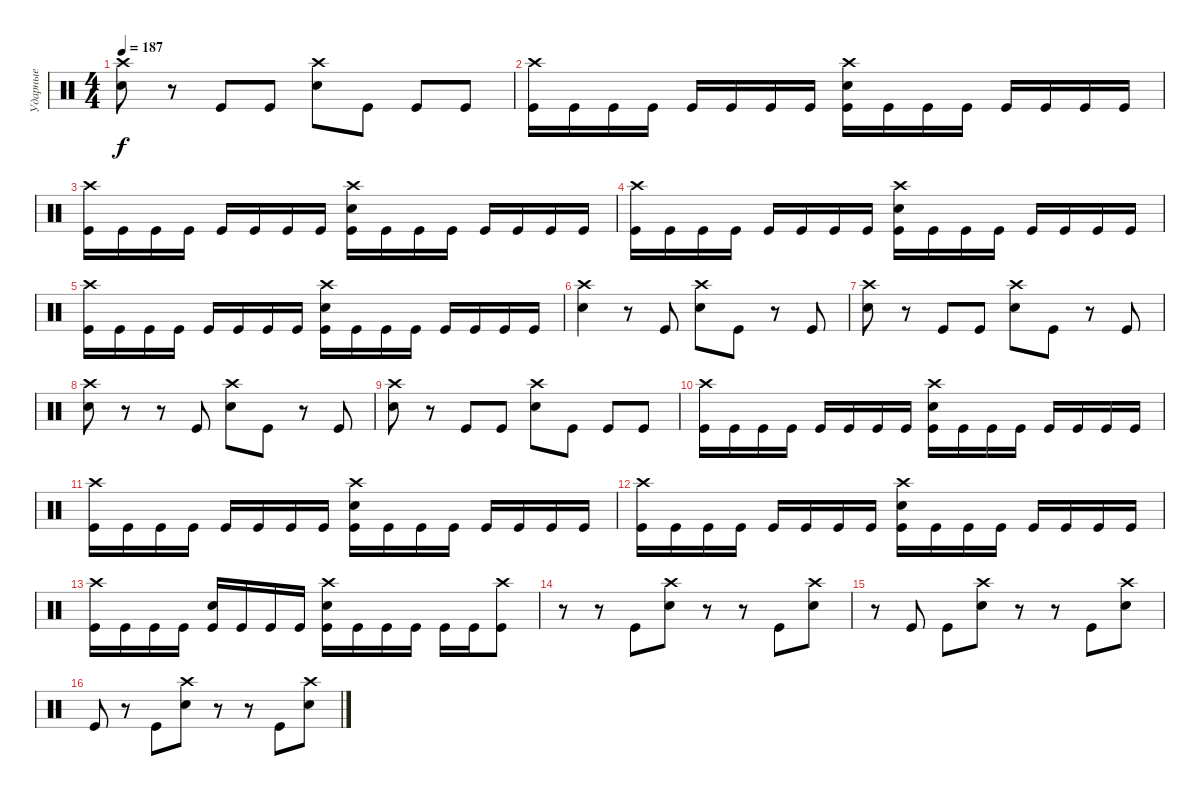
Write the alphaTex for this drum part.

\track ("Ударные" "Ударные") {instrument percussion}
\staff {score}
\articulation defaults
\ts (4 4)
\tempo 187
\clef neutral
\ks c
("Crash high (hit)" "Electric Snare (hit)").8{dy f} r.8 "Kick (hit)".8 "Kick (hit)".8 ("Crash high (hit)" "Electric Snare (hit)").8 "Kick (hit)".8 "Kick (hit)".8 "Kick (hit)".8 |
("Crash high (hit)" "Kick (hit)").16 "Kick (hit)".16 "Kick (hit)".16 "Kick (hit)".16 "Kick (hit)".16 "Kick (hit)".16 "Kick (hit)".16 "Kick (hit)".16 ("Crash high (hit)" "Electric Snare (hit)" "Kick (hit)").16 "Kick (hit)".16 "Kick (hit)".16 "Kick (hit)".16 "Kick (hit)".16 "Kick (hit)".16 "Kick (hit)".16 "Kick (hit)".16 |
("Crash high (hit)" "Kick (hit)").16 "Kick (hit)".16 "Kick (hit)".16 "Kick (hit)".16 "Kick (hit)".16 "Kick (hit)".16 "Kick (hit)".16 "Kick (hit)".16 ("Crash high (hit)" "Electric Snare (hit)" "Kick (hit)").16 "Kick (hit)".16 "Kick (hit)".16 "Kick (hit)".16 "Kick (hit)".16 "Kick (hit)".16 "Kick (hit)".16 "Kick (hit)".16 |
("Crash high (hit)" "Kick (hit)").16 "Kick (hit)".16 "Kick (hit)".16 "Kick (hit)".16 "Kick (hit)".16 "Kick (hit)".16 "Kick (hit)".16 "Kick (hit)".16 ("Crash high (hit)" "Electric Snare (hit)" "Kick (hit)").16 "Kick (hit)".16 "Kick (hit)".16 "Kick (hit)".16 "Kick (hit)".16 "Kick (hit)".16 "Kick (hit)".16 "Kick (hit)".16 |
("Crash high (hit)" "Kick (hit)").16 "Kick (hit)".16 "Kick (hit)".16 "Kick (hit)".16 "Kick (hit)".16 "Kick (hit)".16 "Kick (hit)".16 "Kick (hit)".16 ("Crash high (hit)" "Electric Snare (hit)" "Kick (hit)").16 "Kick (hit)".16 "Kick (hit)".16 "Kick (hit)".16 "Kick (hit)".16 "Kick (hit)".16 "Kick (hit)".16 "Kick (hit)".16 |
("Electric Snare (hit)" "Crash high (hit)").4 r.8 "Kick (hit)".8 ("Crash high (hit)" "Electric Snare (hit)").8 "Kick (hit)".8 r.8 "Kick (hit)".8 |
("Crash high (hit)" "Electric Snare (hit)").8 r.8 "Kick (hit)".8 "Kick (hit)".8 ("Crash high (hit)" "Electric Snare (hit)").8 "Kick (hit)".8 r.8 "Kick (hit)".8 |
("Crash high (hit)" "Electric Snare (hit)").8 r.8 r.8 "Kick (hit)".8 ("Crash high (hit)" "Electric Snare (hit)").8 "Kick (hit)".8 r.8 "Kick (hit)".8 |
("Crash high (hit)" "Electric Snare (hit)").8 r.8 "Kick (hit)".8 "Kick (hit)".8 ("Crash high (hit)" "Electric Snare (hit)").8 "Kick (hit)".8 "Kick (hit)".8 "Kick (hit)".8 |
("Crash high (hit)" "Kick (hit)").16 "Kick (hit)".16 "Kick (hit)".16 "Kick (hit)".16 "Kick (hit)".16 "Kick (hit)".16 "Kick (hit)".16 "Kick (hit)".16 ("Crash high (hit)" "Electric Snare (hit)" "Kick (hit)").16 "Kick (hit)".16 "Kick (hit)".16 "Kick (hit)".16 "Kick (hit)".16 "Kick (hit)".16 "Kick (hit)".16 "Kick (hit)".16 |
("Crash high (hit)" "Kick (hit)").16 "Kick (hit)".16 "Kick (hit)".16 "Kick (hit)".16 "Kick (hit)".16 "Kick (hit)".16 "Kick (hit)".16 "Kick (hit)".16 ("Crash high (hit)" "Electric Snare (hit)" "Kick (hit)").16 "Kick (hit)".16 "Kick (hit)".16 "Kick (hit)".16 "Kick (hit)".16 "Kick (hit)".16 "Kick (hit)".16 "Kick (hit)".16 |
("Crash high (hit)" "Kick (hit)").16 "Kick (hit)".16 "Kick (hit)".16 "Kick (hit)".16 "Kick (hit)".16 "Kick (hit)".16 "Kick (hit)".16 "Kick (hit)".16 ("Crash high (hit)" "Electric Snare (hit)" "Kick (hit)").16 "Kick (hit)".16 "Kick (hit)".16 "Kick (hit)".16 "Kick (hit)".16 "Kick (hit)".16 "Kick (hit)".16 "Kick (hit)".16 |
("Crash high (hit)" "Kick (hit)").16 "Kick (hit)".16 "Kick (hit)".16 "Kick (hit)".16 ("Electric Snare (hit)" "Kick (hit)").16 "Kick (hit)".16 "Kick (hit)".16 "Kick (hit)".16 ("Crash high (hit)" "Electric Snare (hit)" "Kick (hit)").16 "Kick (hit)".16 "Kick (hit)".16 "Kick (hit)".16 "Kick (hit)".16 "Kick (hit)".16 ("Crash high (hit)" "Kick (hit)").8 |
r.8 r.8 "Kick (hit)".8 ("Crash high (hit)" "Electric Snare (hit)").8 r.8 r.8 "Kick (hit)".8 ("Crash high (hit)" "Electric Snare (hit)").8 |
r.8 "Kick (hit)".8 "Kick (hit)".8 ("Crash high (hit)" "Electric Snare (hit)").8 r.8 r.8 "Kick (hit)".8 ("Crash high (hit)" "Electric Snare (hit)").8 |
"Kick (hit)".8 r.8 "Kick (hit)".8 ("Crash high (hit)" "Electric Snare (hit)").8 r.8 r.8 "Kick (hit)".8 ("Crash high (hit)" "Electric Snare (hit)").8
